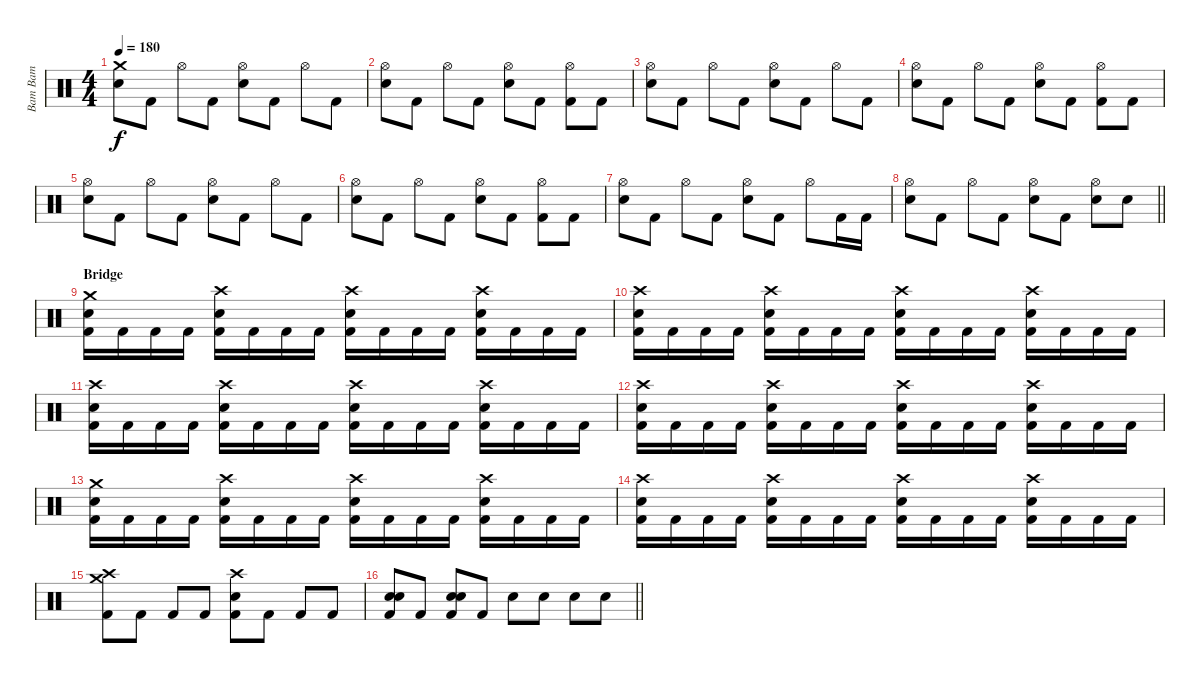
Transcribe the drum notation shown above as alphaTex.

\track ("Bam Bam" "Bam Bam") {instrument percussion}
\staff {score}
\articulation defaults
\ts (4 4)
\tempo 180
\clef neutral
\ks c
("Crash medium (hit)" "Electric Snare (hit)").8{dy f} "Kick (hit) 2".8 "Hi-Hat (open)".8 "Kick (hit) 2".8 ("Hi-Hat (open)" "Electric Snare (hit)").8 "Kick (hit) 2".8 "Hi-Hat (open)".8 "Kick (hit) 2".8 |
("Hi-Hat (open)" "Electric Snare (hit)").8 "Kick (hit) 2".8 "Hi-Hat (open)".8 "Kick (hit) 2".8 ("Hi-Hat (open)" "Electric Snare (hit)").8 "Kick (hit) 2".8 ("Hi-Hat (open)" "Kick (hit) 2").8 "Kick (hit) 2".8 |
("Hi-Hat (open)" "Electric Snare (hit)").8 "Kick (hit) 2".8 "Hi-Hat (open)".8 "Kick (hit) 2".8 ("Hi-Hat (open)" "Electric Snare (hit)").8 "Kick (hit) 2".8 "Hi-Hat (open)".8 "Kick (hit) 2".8 |
("Hi-Hat (open)" "Electric Snare (hit)").8 "Kick (hit) 2".8 "Hi-Hat (open)".8 "Kick (hit) 2".8 ("Hi-Hat (open)" "Electric Snare (hit)").8 "Kick (hit) 2".8 ("Hi-Hat (open)" "Kick (hit) 2").8 "Kick (hit) 2".8 |
("Hi-Hat (open)" "Electric Snare (hit)").8 "Kick (hit) 2".8 "Hi-Hat (open)".8 "Kick (hit) 2".8 ("Hi-Hat (open)" "Electric Snare (hit)").8 "Kick (hit) 2".8 "Hi-Hat (open)".8 "Kick (hit) 2".8 |
("Hi-Hat (open)" "Electric Snare (hit)").8 "Kick (hit) 2".8 "Hi-Hat (open)".8 "Kick (hit) 2".8 ("Hi-Hat (open)" "Electric Snare (hit)").8 "Kick (hit) 2".8 ("Hi-Hat (open)" "Kick (hit) 2").8 "Kick (hit) 2".8 |
("Hi-Hat (open)" "Electric Snare (hit)").8 "Kick (hit) 2".8 "Hi-Hat (open)".8 "Kick (hit) 2".8 ("Hi-Hat (open)" "Electric Snare (hit)").8 "Kick (hit) 2".8 "Hi-Hat (open)".8 "Kick (hit) 2".16 "Kick (hit) 2".16 |
\barLineRight lightlight
("Hi-Hat (open)" "Electric Snare (hit)").8 "Kick (hit) 2".8 "Hi-Hat (open)".8 "Kick (hit) 2".8 ("Hi-Hat (open)" "Electric Snare (hit)").8 "Kick (hit) 2".8 ("Hi-Hat (open)" "Electric Snare (hit)").8 "Electric Snare (hit)".8 |
\section ("" "Bridge")
("Crash medium (hit)" "Electric Snare (hit)" "Kick (hit) 2").16 "Kick (hit) 2".16 "Kick (hit) 2".16 "Kick (hit) 2".16 ("Crash high (hit)" "Electric Snare (hit)" "Kick (hit) 2").16 "Kick (hit) 2".16 "Kick (hit) 2".16 "Kick (hit) 2".16 ("Crash high (hit)" "Electric Snare (hit)" "Kick (hit) 2").16 "Kick (hit) 2".16 "Kick (hit) 2".16 "Kick (hit) 2".16 ("Crash high (hit)" "Electric Snare (hit)" "Kick (hit) 2").16 "Kick (hit) 2".16 "Kick (hit) 2".16 "Kick (hit) 2".16 |
("Crash high (hit)" "Electric Snare (hit)" "Kick (hit) 2").16 "Kick (hit) 2".16 "Kick (hit) 2".16 "Kick (hit) 2".16 ("Crash high (hit)" "Electric Snare (hit)" "Kick (hit) 2").16 "Kick (hit) 2".16 "Kick (hit) 2".16 "Kick (hit) 2".16 ("Crash high (hit)" "Electric Snare (hit)" "Kick (hit) 2").16 "Kick (hit) 2".16 "Kick (hit) 2".16 "Kick (hit) 2".16 ("Crash high (hit)" "Electric Snare (hit)" "Kick (hit) 2").16 "Kick (hit) 2".16 "Kick (hit) 2".16 "Kick (hit) 2".16 |
("Crash high (hit)" "Electric Snare (hit)" "Kick (hit) 2").16 "Kick (hit) 2".16 "Kick (hit) 2".16 "Kick (hit) 2".16 ("Crash high (hit)" "Electric Snare (hit)" "Kick (hit) 2").16 "Kick (hit) 2".16 "Kick (hit) 2".16 "Kick (hit) 2".16 ("Crash high (hit)" "Electric Snare (hit)" "Kick (hit) 2").16 "Kick (hit) 2".16 "Kick (hit) 2".16 "Kick (hit) 2".16 ("Crash high (hit)" "Electric Snare (hit)" "Kick (hit) 2").16 "Kick (hit) 2".16 "Kick (hit) 2".16 "Kick (hit) 2".16 |
("Crash high (hit)" "Electric Snare (hit)" "Kick (hit) 2").16 "Kick (hit) 2".16 "Kick (hit) 2".16 "Kick (hit) 2".16 ("Crash high (hit)" "Electric Snare (hit)" "Kick (hit) 2").16 "Kick (hit) 2".16 "Kick (hit) 2".16 "Kick (hit) 2".16 ("Crash high (hit)" "Electric Snare (hit)" "Kick (hit) 2").16 "Kick (hit) 2".16 "Kick (hit) 2".16 "Kick (hit) 2".16 ("Crash high (hit)" "Electric Snare (hit)" "Kick (hit) 2").16 "Kick (hit) 2".16 "Kick (hit) 2".16 "Kick (hit) 2".16 |
("Crash medium (hit)" "Electric Snare (hit)" "Kick (hit) 2").16 "Kick (hit) 2".16 "Kick (hit) 2".16 "Kick (hit) 2".16 ("Crash high (hit)" "Electric Snare (hit)" "Kick (hit) 2").16 "Kick (hit) 2".16 "Kick (hit) 2".16 "Kick (hit) 2".16 ("Crash high (hit)" "Electric Snare (hit)" "Kick (hit) 2").16 "Kick (hit) 2".16 "Kick (hit) 2".16 "Kick (hit) 2".16 ("Crash high (hit)" "Electric Snare (hit)" "Kick (hit) 2").16 "Kick (hit) 2".16 "Kick (hit) 2".16 "Kick (hit) 2".16 |
("Crash high (hit)" "Electric Snare (hit)" "Kick (hit) 2").16 "Kick (hit) 2".16 "Kick (hit) 2".16 "Kick (hit) 2".16 ("Crash high (hit)" "Electric Snare (hit)" "Kick (hit) 2").16 "Kick (hit) 2".16 "Kick (hit) 2".16 "Kick (hit) 2".16 ("Crash high (hit)" "Electric Snare (hit)" "Kick (hit) 2").16 "Kick (hit) 2".16 "Kick (hit) 2".16 "Kick (hit) 2".16 ("Crash high (hit)" "Electric Snare (hit)" "Kick (hit) 2").16 "Kick (hit) 2".16 "Kick (hit) 2".16 "Kick (hit) 2".16 |
("Crash medium (hit)" "Crash high (hit)" "Kick (hit) 2").8 "Kick (hit) 2".8 "Kick (hit) 2".8 "Kick (hit) 2".8 ("Crash high (hit)" "Electric Snare (hit)" "Kick (hit) 2").8 "Kick (hit) 2".8 "Kick (hit) 2".8 "Kick (hit) 2".8 |
\barLineRight lightlight
("Electric Snare (hit)" "Electric Snare (hit)" "Kick (hit) 2").8 "Kick (hit) 2".8 ("Electric Snare (hit)" "Electric Snare (hit)" "Kick (hit) 2").8 "Kick (hit) 2".8 "Electric Snare (hit)".8 "Electric Snare (hit)".8 "Electric Snare (hit)".8 "Electric Snare (hit)".8
